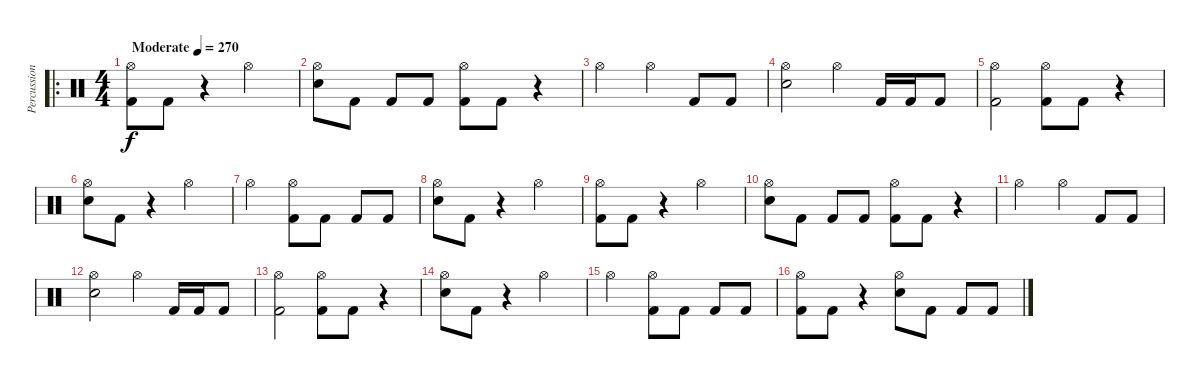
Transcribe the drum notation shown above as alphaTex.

\track ("Percussion" "Percussion") {instrument percussion}
\staff {score}
\articulation defaults
\ro
\ts (4 4)
\tempo (270 "Moderate")
\clef neutral
\ks c
("Hi-Hat (open)" "Kick (hit) 2").8{dy f} "Kick (hit) 2".8 r.4 "Hi-Hat (open)".2 |
("Hi-Hat (open)" "Electric Snare (hit)").8 "Kick (hit) 2".8 "Kick (hit) 2".8 "Kick (hit) 2".8 ("Hi-Hat (open)" "Kick (hit) 2").8 "Kick (hit) 2".8 r.4 |
"Hi-Hat (open)".2 "Hi-Hat (open)".4 "Kick (hit) 2".8 "Kick (hit) 2".8 |
("Hi-Hat (open)" "Electric Snare (hit)").2 "Hi-Hat (open)".4 "Kick (hit) 2".16 "Kick (hit) 2".16 "Kick (hit) 2".8 |
("Hi-Hat (open)" "Kick (hit) 2").2 ("Hi-Hat (open)" "Kick (hit) 2").8 "Kick (hit) 2".8 r.4 |
("Hi-Hat (open)" "Electric Snare (hit)").8 "Kick (hit) 2".8 r.4 "Hi-Hat (open)".2 |
"Hi-Hat (open)".2 ("Hi-Hat (open)" "Kick (hit) 2").8 "Kick (hit) 2".8 "Kick (hit) 2".8 "Kick (hit) 2".8 |
("Hi-Hat (open)" "Electric Snare (hit)").8 "Kick (hit) 2".8 r.4 "Hi-Hat (open)".2 |
("Hi-Hat (open)" "Kick (hit) 2").8 "Kick (hit) 2".8 r.4 "Hi-Hat (open)".2 |
("Hi-Hat (open)" "Electric Snare (hit)").8 "Kick (hit) 2".8 "Kick (hit) 2".8 "Kick (hit) 2".8 ("Hi-Hat (open)" "Kick (hit) 2").8 "Kick (hit) 2".8 r.4 |
"Hi-Hat (open)".2 "Hi-Hat (open)".4 "Kick (hit) 2".8 "Kick (hit) 2".8 |
("Hi-Hat (open)" "Electric Snare (hit)").2 "Hi-Hat (open)".4 "Kick (hit) 2".16 "Kick (hit) 2".16 "Kick (hit) 2".8 |
("Hi-Hat (open)" "Kick (hit) 2").2 ("Hi-Hat (open)" "Kick (hit) 2").8 "Kick (hit) 2".8 r.4 |
("Hi-Hat (open)" "Electric Snare (hit)").8 "Kick (hit) 2".8 r.4 "Hi-Hat (open)".2 |
"Hi-Hat (open)".2 ("Hi-Hat (open)" "Kick (hit) 2").8 "Kick (hit) 2".8 "Kick (hit) 2".8 "Kick (hit) 2".8 |
("Hi-Hat (open)" "Kick (hit) 2").8 "Kick (hit) 2".8 r.4 ("Hi-Hat (open)" "Electric Snare (hit)").8 "Kick (hit) 2".8 "Kick (hit) 2".8 "Kick (hit) 2".8
